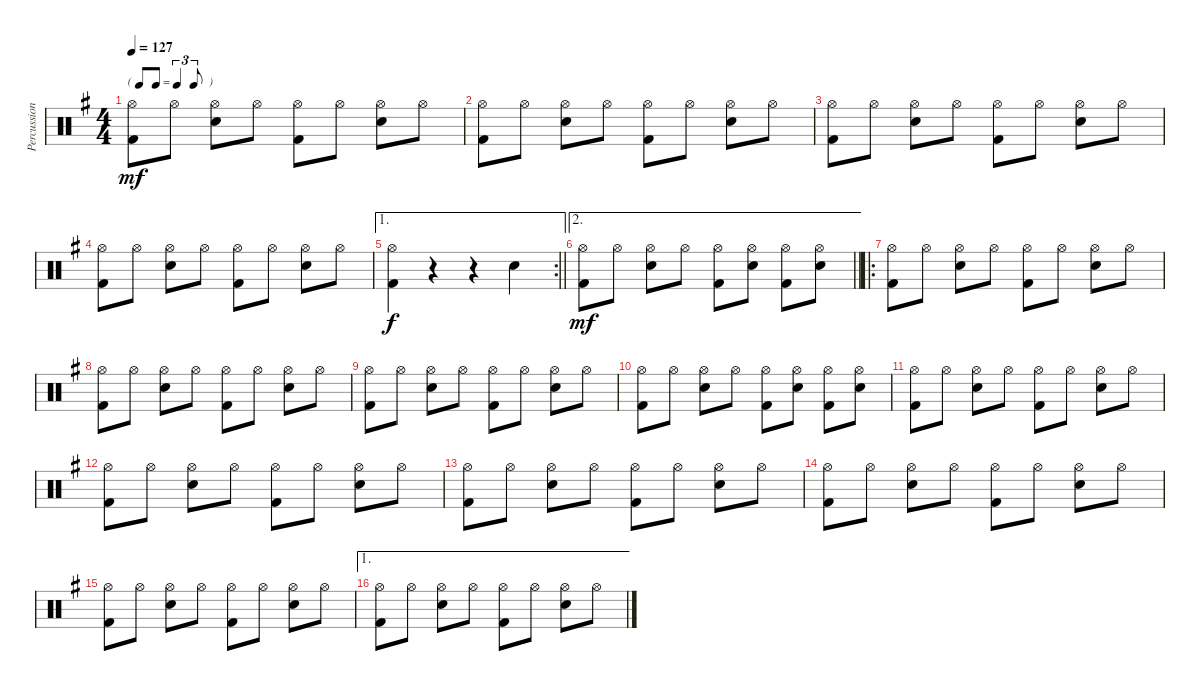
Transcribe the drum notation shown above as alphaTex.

\track ("Percussion" "Percussion") {instrument percussion}
\staff {score}
\articulation defaults
\ts (4 4)
\tf triplet8th
\tempo 127
\clef neutral
\ks g
("Hi-Hat (open)" "Kick (hit) 2").8{dy mf} "Hi-Hat (open)".8 ("Hi-Hat (open)" "Snare (hit) 2").8 "Hi-Hat (open)".8 ("Hi-Hat (open)" "Kick (hit) 2").8 "Hi-Hat (open)".8 ("Hi-Hat (open)" "Snare (hit) 2").8 "Hi-Hat (open)".8 |
("Hi-Hat (open)" "Kick (hit) 2").8 "Hi-Hat (open)".8 ("Hi-Hat (open)" "Snare (hit) 2").8 "Hi-Hat (open)".8 ("Hi-Hat (open)" "Kick (hit) 2").8 "Hi-Hat (open)".8 ("Hi-Hat (open)" "Snare (hit) 2").8 "Hi-Hat (open)".8 |
("Hi-Hat (open)" "Kick (hit) 2").8 "Hi-Hat (open)".8 ("Hi-Hat (open)" "Snare (hit) 2").8 "Hi-Hat (open)".8 ("Hi-Hat (open)" "Kick (hit) 2").8 "Hi-Hat (open)".8 ("Hi-Hat (open)" "Snare (hit) 2").8 "Hi-Hat (open)".8 |
("Hi-Hat (open)" "Kick (hit) 2").8 "Hi-Hat (open)".8 ("Hi-Hat (open)" "Snare (hit) 2").8 "Hi-Hat (open)".8 ("Hi-Hat (open)" "Kick (hit) 2").8 "Hi-Hat (open)".8 ("Hi-Hat (open)" "Snare (hit) 2").8 "Hi-Hat (open)".8 |
\ae 1
\rc 2
\barLineRight lightlight
("Hi-Hat (open)" "Kick (hit) 2").4{dy f} r.4 r.4 "Snare (hit) 2".4 |
\ae 2
\barLineRight lightlight
("Hi-Hat (open)" "Kick (hit) 2").8{dy mf} "Hi-Hat (open)".8 ("Hi-Hat (open)" "Snare (hit) 2").8 "Hi-Hat (open)".8 ("Hi-Hat (open)" "Kick (hit) 2").8 ("Hi-Hat (open)" "Snare (hit) 2").8 ("Hi-Hat (open)" "Kick (hit) 2").8 ("Hi-Hat (open)" "Snare (hit) 2").8 |
\ro
("Hi-Hat (open)" "Kick (hit) 2").8 "Hi-Hat (open)".8 ("Hi-Hat (open)" "Snare (hit) 2").8 "Hi-Hat (open)".8 ("Hi-Hat (open)" "Kick (hit) 2").8 "Hi-Hat (open)".8 ("Hi-Hat (open)" "Snare (hit) 2").8 "Hi-Hat (open)".8 |
("Hi-Hat (open)" "Kick (hit) 2").8 "Hi-Hat (open)".8 ("Hi-Hat (open)" "Snare (hit) 2").8 "Hi-Hat (open)".8 ("Hi-Hat (open)" "Kick (hit) 2").8 "Hi-Hat (open)".8 ("Hi-Hat (open)" "Snare (hit) 2").8 "Hi-Hat (open)".8 |
("Hi-Hat (open)" "Kick (hit) 2").8 "Hi-Hat (open)".8 ("Hi-Hat (open)" "Snare (hit) 2").8 "Hi-Hat (open)".8 ("Hi-Hat (open)" "Kick (hit) 2").8 "Hi-Hat (open)".8 ("Hi-Hat (open)" "Snare (hit) 2").8 "Hi-Hat (open)".8 |
("Hi-Hat (open)" "Kick (hit) 2").8 "Hi-Hat (open)".8 ("Hi-Hat (open)" "Snare (hit) 2").8 "Hi-Hat (open)".8 ("Hi-Hat (open)" "Kick (hit) 2").8 ("Hi-Hat (open)" "Snare (hit) 2").8 ("Hi-Hat (open)" "Kick (hit) 2").8 ("Hi-Hat (open)" "Snare (hit) 2").8 |
("Hi-Hat (open)" "Kick (hit) 2").8 "Hi-Hat (open)".8 ("Hi-Hat (open)" "Snare (hit) 2").8 "Hi-Hat (open)".8 ("Hi-Hat (open)" "Kick (hit) 2").8 "Hi-Hat (open)".8 ("Hi-Hat (open)" "Snare (hit) 2").8 "Hi-Hat (open)".8 |
("Hi-Hat (open)" "Kick (hit) 2").8 "Hi-Hat (open)".8 ("Hi-Hat (open)" "Snare (hit) 2").8 "Hi-Hat (open)".8 ("Hi-Hat (open)" "Kick (hit) 2").8 "Hi-Hat (open)".8 ("Hi-Hat (open)" "Snare (hit) 2").8 "Hi-Hat (open)".8 |
("Hi-Hat (open)" "Kick (hit) 2").8 "Hi-Hat (open)".8 ("Hi-Hat (open)" "Snare (hit) 2").8 "Hi-Hat (open)".8 ("Hi-Hat (open)" "Kick (hit) 2").8 "Hi-Hat (open)".8 ("Hi-Hat (open)" "Snare (hit) 2").8 "Hi-Hat (open)".8 |
("Hi-Hat (open)" "Kick (hit) 2").8 "Hi-Hat (open)".8 ("Hi-Hat (open)" "Snare (hit) 2").8 "Hi-Hat (open)".8 ("Hi-Hat (open)" "Kick (hit) 2").8 "Hi-Hat (open)".8 ("Hi-Hat (open)" "Snare (hit) 2").8 "Hi-Hat (open)".8 |
("Hi-Hat (open)" "Kick (hit) 2").8 "Hi-Hat (open)".8 ("Hi-Hat (open)" "Snare (hit) 2").8 "Hi-Hat (open)".8 ("Hi-Hat (open)" "Kick (hit) 2").8 "Hi-Hat (open)".8 ("Hi-Hat (open)" "Snare (hit) 2").8 "Hi-Hat (open)".8 |
\ae 1
("Hi-Hat (open)" "Kick (hit) 2").8 "Hi-Hat (open)".8 ("Hi-Hat (open)" "Snare (hit) 2").8 "Hi-Hat (open)".8 ("Hi-Hat (open)" "Kick (hit) 2").8 "Hi-Hat (open)".8 ("Hi-Hat (open)" "Snare (hit) 2").8 "Hi-Hat (open)".8
